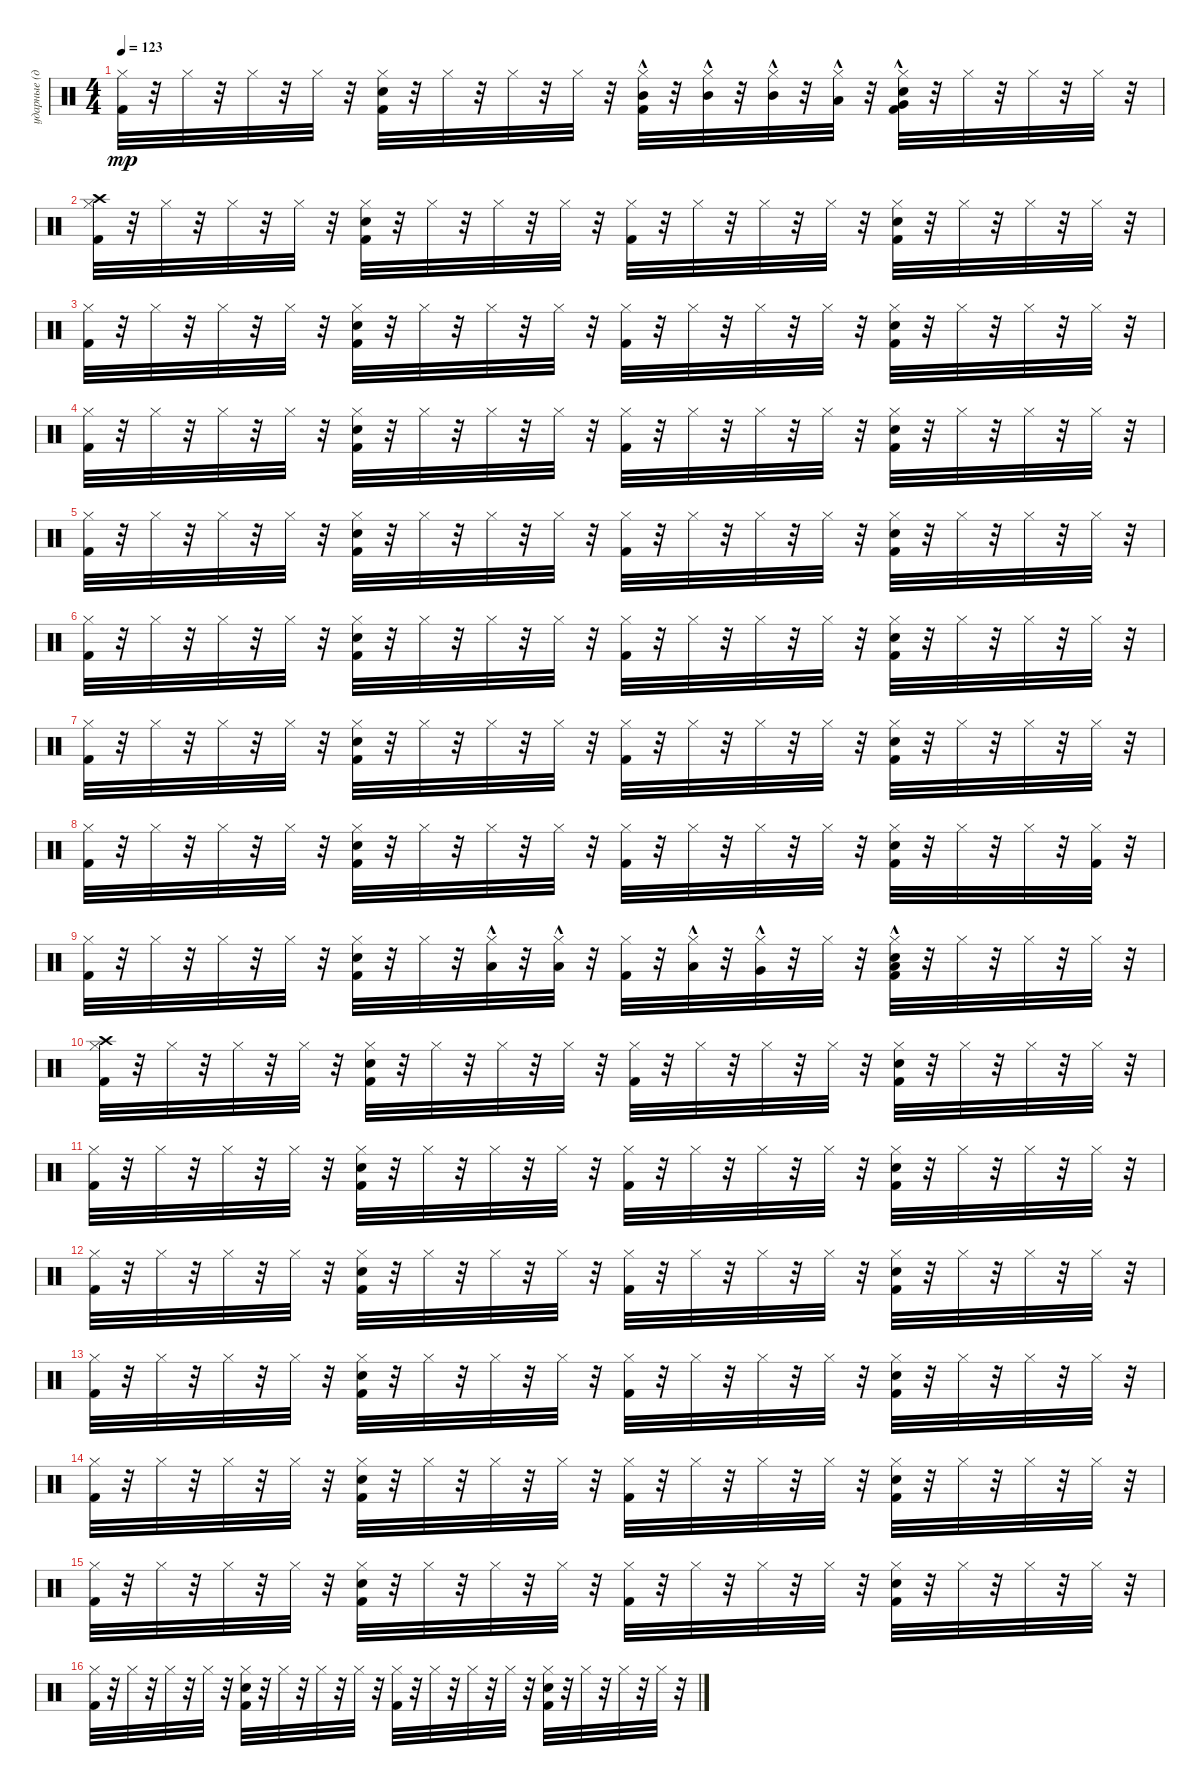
\track ("ударные (драм-машина)" "ударные (д") {instrument percussion}
\staff {score}
\articulation defaults
\ts (4 4)
\tempo 123
\clef neutral
\ks c
("Kick (hit) 2" "Hi-Hat (closed)").32{dy mp} r.32 "Hi-Hat (closed)".32 r.32 "Hi-Hat (closed)".32 r.32 "Hi-Hat (closed)".32 r.32 ("Kick (hit) 2" "Snare (hit) 2" "Hi-Hat (closed)").32 r.32 "Hi-Hat (closed)".32 r.32 "Hi-Hat (closed)".32 r.32 "Hi-Hat (closed)".32 r.32 ("Mid Tom (hit)"{hac} "Kick (hit) 2" "Hi-Hat (closed)").32 r.32 ("Mid Tom (hit)"{hac} "Hi-Hat (closed)").32 r.32 ("Mid Tom (hit)"{hac} "Hi-Hat (closed)").32 r.32 ("Low Tom (hit)"{hac} "Hi-Hat (closed)").32 r.32 ("Very Low Tom (hit)"{hac} "Kick (hit) 2" "Snare (hit) 2" "Hi-Hat (closed)").32 r.32 "Hi-Hat (closed)".32 r.32 "Hi-Hat (closed)".32 r.32 "Hi-Hat (closed)".32 r.32 |
("Hi-Hat (closed)" "Kick (hit) 2" "Crash high (hit)").32 r.32 "Hi-Hat (closed)".32 r.32 "Hi-Hat (closed)".32 r.32 "Hi-Hat (closed)".32 r.32 ("Kick (hit) 2" "Hi-Hat (closed)" "Snare (hit) 2").32 r.32 "Hi-Hat (closed)".32 r.32 "Hi-Hat (closed)".32 r.32 "Hi-Hat (closed)".32 r.32 ("Hi-Hat (closed)" "Kick (hit) 2").32 r.32 "Hi-Hat (closed)".32 r.32 "Hi-Hat (closed)".32 r.32 "Hi-Hat (closed)".32 r.32 ("Kick (hit) 2" "Hi-Hat (closed)" "Snare (hit) 2").32 r.32 "Hi-Hat (closed)".32 r.32 "Hi-Hat (closed)".32 r.32 "Hi-Hat (closed)".32 r.32 |
("Kick (hit) 2" "Hi-Hat (closed)").32 r.32 "Hi-Hat (closed)".32 r.32 "Hi-Hat (closed)".32 r.32 "Hi-Hat (closed)".32 r.32 ("Kick (hit) 2" "Snare (hit) 2" "Hi-Hat (closed)").32 r.32 "Hi-Hat (closed)".32 r.32 "Hi-Hat (closed)".32 r.32 "Hi-Hat (closed)".32 r.32 ("Kick (hit) 2" "Hi-Hat (closed)").32 r.32 "Hi-Hat (closed)".32 r.32 "Hi-Hat (closed)".32 r.32 "Hi-Hat (closed)".32 r.32 ("Kick (hit) 2" "Snare (hit) 2" "Hi-Hat (closed)").32 r.32 "Hi-Hat (closed)".32 r.32 "Hi-Hat (closed)".32 r.32 "Hi-Hat (closed)".32 r.32 |
("Kick (hit) 2" "Hi-Hat (closed)").32 r.32 "Hi-Hat (closed)".32 r.32 "Hi-Hat (closed)".32 r.32 "Hi-Hat (closed)".32 r.32 ("Kick (hit) 2" "Snare (hit) 2" "Hi-Hat (closed)").32 r.32 "Hi-Hat (closed)".32 r.32 "Hi-Hat (closed)".32 r.32 "Hi-Hat (closed)".32 r.32 ("Kick (hit) 2" "Hi-Hat (closed)").32 r.32 "Hi-Hat (closed)".32 r.32 "Hi-Hat (closed)".32 r.32 "Hi-Hat (closed)".32 r.32 ("Kick (hit) 2" "Snare (hit) 2" "Hi-Hat (closed)").32 r.32 "Hi-Hat (closed)".32 r.32 "Hi-Hat (closed)".32 r.32 "Hi-Hat (closed)".32 r.32 |
("Kick (hit) 2" "Hi-Hat (closed)").32 r.32 "Hi-Hat (closed)".32 r.32 "Hi-Hat (closed)".32 r.32 "Hi-Hat (closed)".32 r.32 ("Kick (hit) 2" "Snare (hit) 2" "Hi-Hat (closed)").32 r.32 "Hi-Hat (closed)".32 r.32 "Hi-Hat (closed)".32 r.32 "Hi-Hat (closed)".32 r.32 ("Kick (hit) 2" "Hi-Hat (closed)").32 r.32 "Hi-Hat (closed)".32 r.32 "Hi-Hat (closed)".32 r.32 "Hi-Hat (closed)".32 r.32 ("Kick (hit) 2" "Snare (hit) 2" "Hi-Hat (closed)").32 r.32 "Hi-Hat (closed)".32 r.32 "Hi-Hat (closed)".32 r.32 "Hi-Hat (closed)".32 r.32 |
("Kick (hit) 2" "Hi-Hat (closed)").32 r.32 "Hi-Hat (closed)".32 r.32 "Hi-Hat (closed)".32 r.32 "Hi-Hat (closed)".32 r.32 ("Kick (hit) 2" "Snare (hit) 2" "Hi-Hat (closed)").32 r.32 "Hi-Hat (closed)".32 r.32 "Hi-Hat (closed)".32 r.32 "Hi-Hat (closed)".32 r.32 ("Kick (hit) 2" "Hi-Hat (closed)").32 r.32 "Hi-Hat (closed)".32 r.32 "Hi-Hat (closed)".32 r.32 "Hi-Hat (closed)".32 r.32 ("Snare (hit) 2" "Hi-Hat (closed)" "Kick (hit) 2").32 r.32 "Hi-Hat (closed)".32 r.32 "Hi-Hat (closed)".32 r.32 "Hi-Hat (closed)".32 r.32 |
("Kick (hit) 2" "Hi-Hat (closed)").32 r.32 "Hi-Hat (closed)".32 r.32 "Hi-Hat (closed)".32 r.32 "Hi-Hat (closed)".32 r.32 ("Kick (hit) 2" "Snare (hit) 2" "Hi-Hat (closed)").32 r.32 "Hi-Hat (closed)".32 r.32 "Hi-Hat (closed)".32 r.32 "Hi-Hat (closed)".32 r.32 ("Kick (hit) 2" "Hi-Hat (closed)").32 r.32 "Hi-Hat (closed)".32 r.32 "Hi-Hat (closed)".32 r.32 "Hi-Hat (closed)".32 r.32 ("Kick (hit) 2" "Snare (hit) 2" "Hi-Hat (closed)").32 r.32 "Hi-Hat (closed)".32 r.32 "Hi-Hat (closed)".32 r.32 "Hi-Hat (closed)".32 r.32 |
("Kick (hit) 2" "Hi-Hat (closed)").32 r.32 "Hi-Hat (closed)".32 r.32 "Hi-Hat (closed)".32 r.32 "Hi-Hat (closed)".32 r.32 ("Kick (hit) 2" "Snare (hit) 2" "Hi-Hat (closed)").32 r.32 "Hi-Hat (closed)".32 r.32 "Hi-Hat (closed)".32 r.32 "Hi-Hat (closed)".32 r.32 ("Kick (hit) 2" "Hi-Hat (closed)").32 r.32 "Hi-Hat (closed)".32 r.32 "Hi-Hat (closed)".32 r.32 "Hi-Hat (closed)".32 r.32 ("Kick (hit) 2" "Snare (hit) 2" "Hi-Hat (closed)").32 r.32 "Hi-Hat (closed)".32 r.32 "Hi-Hat (closed)".32 r.32 ("Kick (hit) 2" "Hi-Hat (closed)").32 r.32 |
("Kick (hit) 2" "Hi-Hat (closed)").32 r.32 "Hi-Hat (closed)".32 r.32 "Hi-Hat (closed)".32 r.32 "Hi-Hat (closed)".32 r.32 ("Kick (hit) 2" "Snare (hit) 2" "Hi-Hat (closed)").32 r.32 "Hi-Hat (closed)".32 r.32 ("Low Tom (hit)"{hac} "Hi-Hat (closed)").32 r.32 ("Low Tom (hit)"{hac} "Hi-Hat (closed)").32 r.32 ("Kick (hit) 2" "Hi-Hat (closed)").32 r.32 ("Low Tom (hit)"{hac} "Hi-Hat (closed)").32 r.32 ("Very Low Tom (hit)"{hac} "Hi-Hat (closed)").32 r.32 "Hi-Hat (closed)".32 r.32 ("Kick (hit) 2" "Low Floor Tom (hit)"{hac} "Snare (hit) 2" "Hi-Hat (closed)").32 r.32 "Hi-Hat (closed)".32 r.32 "Hi-Hat (closed)".32 r.32 "Hi-Hat (closed)".32 r.32 |
("Hi-Hat (closed)" "Kick (hit) 2" "Crash high (hit)").32 r.32 "Hi-Hat (closed)".32 r.32 "Hi-Hat (closed)".32 r.32 "Hi-Hat (closed)".32 r.32 ("Kick (hit) 2" "Hi-Hat (closed)" "Snare (hit) 2").32 r.32 "Hi-Hat (closed)".32 r.32 "Hi-Hat (closed)".32 r.32 "Hi-Hat (closed)".32 r.32 ("Hi-Hat (closed)" "Kick (hit) 2").32 r.32 "Hi-Hat (closed)".32 r.32 "Hi-Hat (closed)".32 r.32 "Hi-Hat (closed)".32 r.32 ("Kick (hit) 2" "Hi-Hat (closed)" "Snare (hit) 2").32 r.32 "Hi-Hat (closed)".32 r.32 "Hi-Hat (closed)".32 r.32 "Hi-Hat (closed)".32 r.32 |
("Kick (hit) 2" "Hi-Hat (closed)").32 r.32 "Hi-Hat (closed)".32 r.32 "Hi-Hat (closed)".32 r.32 "Hi-Hat (closed)".32 r.32 ("Kick (hit) 2" "Snare (hit) 2" "Hi-Hat (closed)").32 r.32 "Hi-Hat (closed)".32 r.32 "Hi-Hat (closed)".32 r.32 "Hi-Hat (closed)".32 r.32 ("Kick (hit) 2" "Hi-Hat (closed)").32 r.32 "Hi-Hat (closed)".32 r.32 "Hi-Hat (closed)".32 r.32 "Hi-Hat (closed)".32 r.32 ("Kick (hit) 2" "Snare (hit) 2" "Hi-Hat (closed)").32 r.32 "Hi-Hat (closed)".32 r.32 "Hi-Hat (closed)".32 r.32 "Hi-Hat (closed)".32 r.32 |
("Kick (hit) 2" "Hi-Hat (closed)").32 r.32 "Hi-Hat (closed)".32 r.32 "Hi-Hat (closed)".32 r.32 "Hi-Hat (closed)".32 r.32 ("Kick (hit) 2" "Snare (hit) 2" "Hi-Hat (closed)").32 r.32 "Hi-Hat (closed)".32 r.32 "Hi-Hat (closed)".32 r.32 "Hi-Hat (closed)".32 r.32 ("Kick (hit) 2" "Hi-Hat (closed)").32 r.32 "Hi-Hat (closed)".32 r.32 "Hi-Hat (closed)".32 r.32 "Hi-Hat (closed)".32 r.32 ("Kick (hit) 2" "Snare (hit) 2" "Hi-Hat (closed)").32 r.32 "Hi-Hat (closed)".32 r.32 "Hi-Hat (closed)".32 r.32 "Hi-Hat (closed)".32 r.32 |
("Kick (hit) 2" "Hi-Hat (closed)").32 r.32 "Hi-Hat (closed)".32 r.32 "Hi-Hat (closed)".32 r.32 "Hi-Hat (closed)".32 r.32 ("Kick (hit) 2" "Snare (hit) 2" "Hi-Hat (closed)").32 r.32 "Hi-Hat (closed)".32 r.32 "Hi-Hat (closed)".32 r.32 "Hi-Hat (closed)".32 r.32 ("Kick (hit) 2" "Hi-Hat (closed)").32 r.32 "Hi-Hat (closed)".32 r.32 "Hi-Hat (closed)".32 r.32 "Hi-Hat (closed)".32 r.32 ("Kick (hit) 2" "Snare (hit) 2" "Hi-Hat (closed)").32 r.32 "Hi-Hat (closed)".32 r.32 "Hi-Hat (closed)".32 r.32 "Hi-Hat (closed)".32 r.32 |
("Kick (hit) 2" "Hi-Hat (closed)").32 r.32 "Hi-Hat (closed)".32 r.32 "Hi-Hat (closed)".32 r.32 "Hi-Hat (closed)".32 r.32 ("Kick (hit) 2" "Snare (hit) 2" "Hi-Hat (closed)").32 r.32 "Hi-Hat (closed)".32 r.32 "Hi-Hat (closed)".32 r.32 "Hi-Hat (closed)".32 r.32 ("Kick (hit) 2" "Hi-Hat (closed)").32 r.32 "Hi-Hat (closed)".32 r.32 "Hi-Hat (closed)".32 r.32 "Hi-Hat (closed)".32 r.32 ("Snare (hit) 2" "Hi-Hat (closed)" "Kick (hit) 2").32 r.32 "Hi-Hat (closed)".32 r.32 "Hi-Hat (closed)".32 r.32 "Hi-Hat (closed)".32 r.32 |
("Kick (hit) 2" "Hi-Hat (closed)").32 r.32 "Hi-Hat (closed)".32 r.32 "Hi-Hat (closed)".32 r.32 "Hi-Hat (closed)".32 r.32 ("Kick (hit) 2" "Snare (hit) 2" "Hi-Hat (closed)").32 r.32 "Hi-Hat (closed)".32 r.32 "Hi-Hat (closed)".32 r.32 "Hi-Hat (closed)".32 r.32 ("Kick (hit) 2" "Hi-Hat (closed)").32 r.32 "Hi-Hat (closed)".32 r.32 "Hi-Hat (closed)".32 r.32 "Hi-Hat (closed)".32 r.32 ("Kick (hit) 2" "Snare (hit) 2" "Hi-Hat (closed)").32 r.32 "Hi-Hat (closed)".32 r.32 "Hi-Hat (closed)".32 r.32 "Hi-Hat (closed)".32 r.32 |
("Kick (hit) 2" "Hi-Hat (closed)").32 r.32 "Hi-Hat (closed)".32 r.32 "Hi-Hat (closed)".32 r.32 "Hi-Hat (closed)".32 r.32 ("Kick (hit) 2" "Snare (hit) 2" "Hi-Hat (closed)").32 r.32 "Hi-Hat (closed)".32 r.32 "Hi-Hat (closed)".32 r.32 "Hi-Hat (closed)".32 r.32 ("Kick (hit) 2" "Hi-Hat (closed)").32 r.32 "Hi-Hat (closed)".32 r.32 "Hi-Hat (closed)".32 r.32 "Hi-Hat (closed)".32 r.32 ("Kick (hit) 2" "Snare (hit) 2" "Hi-Hat (closed)").32 r.32 "Hi-Hat (closed)".32 r.32 "Hi-Hat (closed)".32 r.32 "Hi-Hat (closed)".32 r.32
